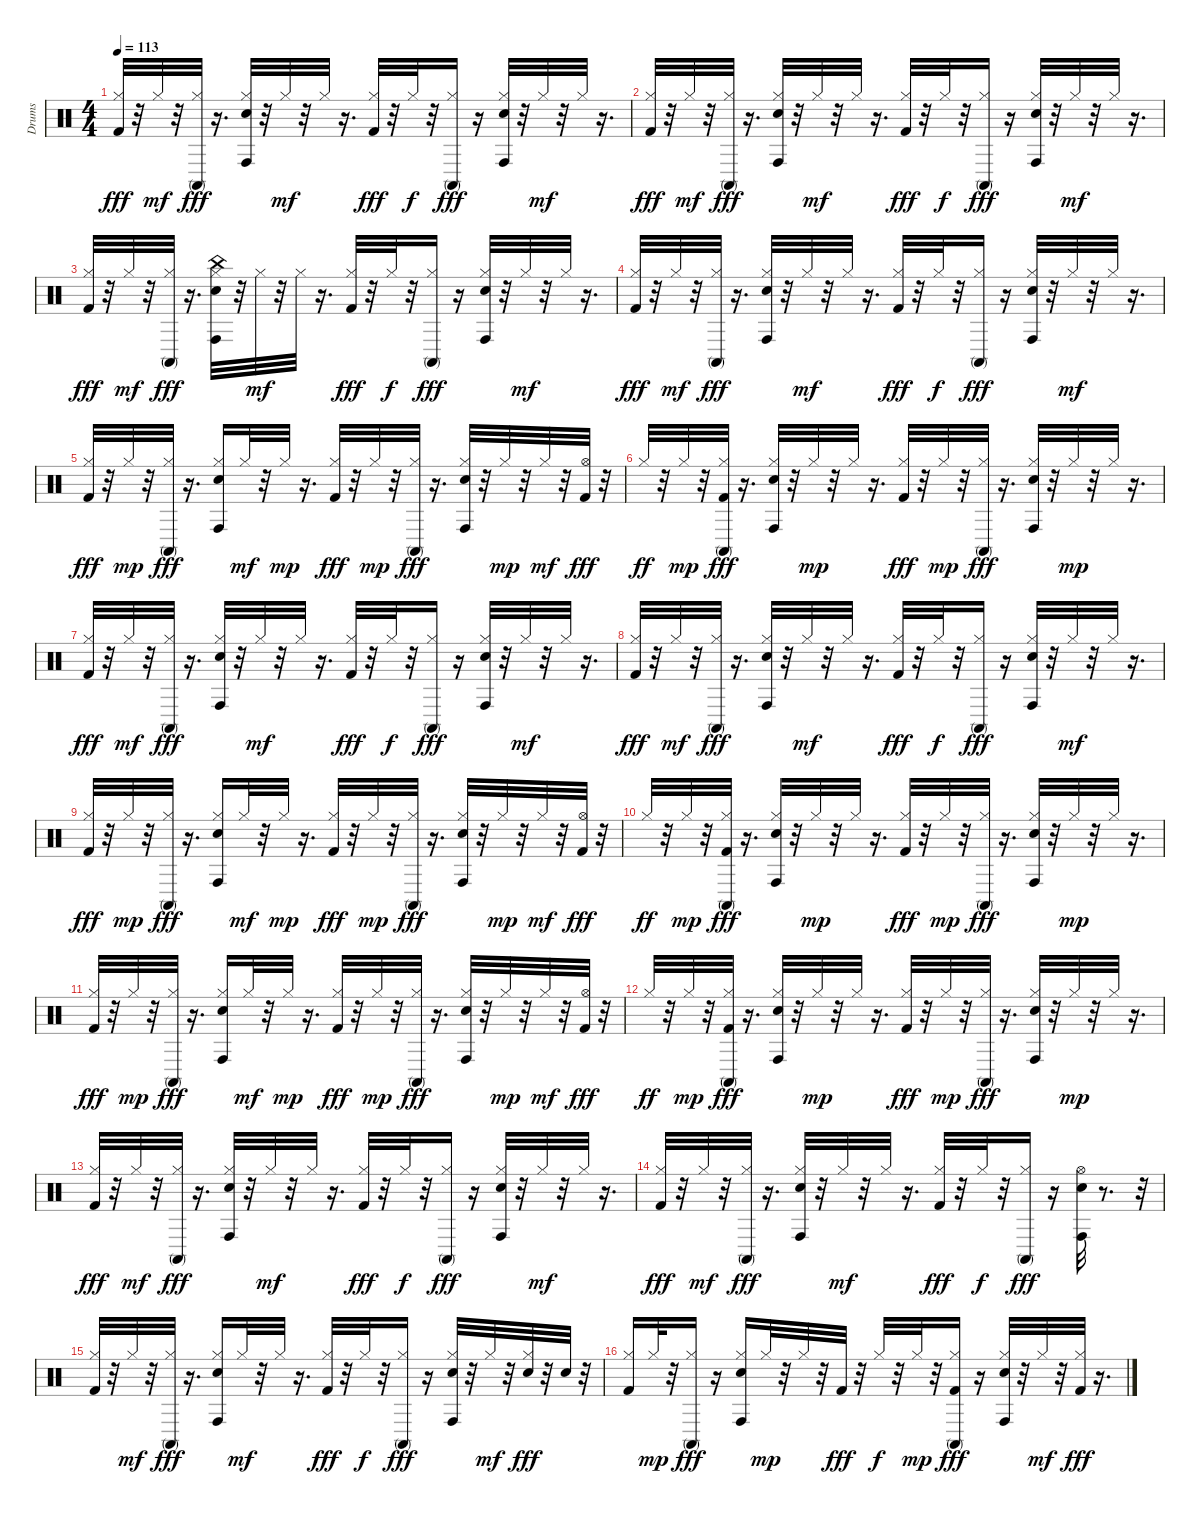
\track ("Drums   " "Drums   ") {instrument percussion}
\staff {score}
\articulation defaults
\ts (4 4)
\tempo 113
\clef neutral
\ks c
("Hi-Hat (closed)" "Kick (hit) 2").32{dy fff} r.32 "Hi-Hat (closed)".32{dy mf} r.32 ("Hi-Hat (closed)" "Conga high (mute)").32{dy fff} r.16{d} ("Hi-Hat (closed)" "Electric Snare (hit)" "Conga high (hit)").32 r.32 "Hi-Hat (closed)".32{dy mf} r.32 "Hi-Hat (closed)".32 r.16{d} ("Hi-Hat (closed)" "Kick (hit) 2").32{dy fff} r.32 "Hi-Hat (closed)".32{dy f} r.32 ("Hi-Hat (closed)" "Conga high (mute)").16{dy fff} r.16 ("Hi-Hat (closed)" "Electric Snare (hit)" "Conga high (hit)").32 r.32 "Hi-Hat (closed)".32{dy mf} r.32 "Hi-Hat (closed)".32 r.16{d} |
("Hi-Hat (closed)" "Kick (hit) 2").32{dy fff} r.32 "Hi-Hat (closed)".32{dy mf} r.32 ("Hi-Hat (closed)" "Conga high (mute)").32{dy fff} r.16{d} ("Hi-Hat (closed)" "Electric Snare (hit)" "Conga high (hit)").32 r.32 "Hi-Hat (closed)".32{dy mf} r.32 "Hi-Hat (closed)".32 r.16{d} ("Hi-Hat (closed)" "Kick (hit) 2").32{dy fff} r.32 "Hi-Hat (closed)".32{dy f} r.32 ("Hi-Hat (closed)" "Conga high (mute)").16{dy fff} r.16 ("Hi-Hat (closed)" "Electric Snare (hit)" "Conga high (hit)").32 r.32 "Hi-Hat (closed)".32{dy mf} r.32 "Hi-Hat (closed)".32 r.16{d} |
("Hi-Hat (closed)" "Kick (hit) 2").32{dy fff} r.32 "Hi-Hat (closed)".32{dy mf} r.32 ("Hi-Hat (closed)" "Conga high (mute)").32{dy fff} r.16{d} ("Hi-Hat (closed)" "Electric Snare (hit)" "China (hit)" "Conga high (hit)").32 r.32 "Hi-Hat (closed)".32{dy mf} r.32 "Hi-Hat (closed)".32 r.16{d} ("Hi-Hat (closed)" "Kick (hit) 2").32{dy fff} r.32 "Hi-Hat (closed)".32{dy f} r.32 ("Hi-Hat (closed)" "Conga high (mute)").16{dy fff} r.16 ("Hi-Hat (closed)" "Electric Snare (hit)" "Conga high (hit)").32 r.32 "Hi-Hat (closed)".32{dy mf} r.32 "Hi-Hat (closed)".32 r.16{d} |
("Hi-Hat (closed)" "Kick (hit) 2").32{dy fff} r.32 "Hi-Hat (closed)".32{dy mf} r.32 ("Hi-Hat (closed)" "Conga high (mute)").32{dy fff} r.16{d} ("Hi-Hat (closed)" "Electric Snare (hit)" "Conga high (hit)").32 r.32 "Hi-Hat (closed)".32{dy mf} r.32 "Hi-Hat (closed)".32 r.16{d} ("Hi-Hat (closed)" "Kick (hit) 2").32{dy fff} r.32 "Hi-Hat (closed)".32{dy f} r.32 ("Hi-Hat (closed)" "Conga high (mute)").16{dy fff} r.16 ("Hi-Hat (closed)" "Electric Snare (hit)" "Conga high (hit)").32 r.32 "Hi-Hat (closed)".32{dy mf} r.32 "Hi-Hat (closed)".32 r.16{d} |
("Hi-Hat (closed)" "Kick (hit) 2").32{dy fff} r.32 "Hi-Hat (closed)".32{dy mp} r.32 ("Hi-Hat (closed)" "Conga high (mute)").32{dy fff} r.16{d} ("Hi-Hat (closed)" "Electric Snare (hit)" "Conga high (hit)").16 "Hi-Hat (closed)".32{dy mf} r.32 "Hi-Hat (closed)".32{dy mp} r.16{d} ("Hi-Hat (closed)" "Kick (hit) 2").32{dy fff} r.32 "Hi-Hat (closed)".32{dy mp} r.32 ("Hi-Hat (closed)" "Conga high (mute)").32{dy fff} r.16{d} ("Hi-Hat (closed)" "Electric Snare (hit)" "Conga high (hit)").32 r.32 "Hi-Hat (closed)".32{dy mp} r.32 "Hi-Hat (closed)".32{dy mf} r.32 ("Kick (hit) 2" "Hi-Hat (open)").32{dy fff} r.32 |
"Hi-Hat (closed)".32{dy ff} r.32 "Hi-Hat (closed)".32{dy mp} r.32 ("Hi-Hat (closed)" "Kick (hit) 2" "Conga high (mute)").32{dy fff} r.16{d} ("Hi-Hat (closed)" "Electric Snare (hit)" "Conga high (hit)").32 r.32 "Hi-Hat (closed)".32{dy mp} r.32 "Hi-Hat (closed)".32 r.16{d} ("Hi-Hat (closed)" "Kick (hit) 2").32{dy fff} r.32 "Hi-Hat (closed)".32{dy mp} r.32 ("Hi-Hat (closed)" "Conga high (mute)").32{dy fff} r.16{d} ("Hi-Hat (closed)" "Electric Snare (hit)" "Conga high (hit)").32 r.32 "Hi-Hat (closed)".32{dy mp} r.32 "Hi-Hat (closed)".32 r.16{d} |
("Hi-Hat (closed)" "Kick (hit) 2").32{dy fff} r.32 "Hi-Hat (closed)".32{dy mf} r.32 ("Hi-Hat (closed)" "Conga high (mute)").32{dy fff} r.16{d} ("Hi-Hat (closed)" "Electric Snare (hit)" "Conga high (hit)").32 r.32 "Hi-Hat (closed)".32{dy mf} r.32 "Hi-Hat (closed)".32 r.16{d} ("Hi-Hat (closed)" "Kick (hit) 2").32{dy fff} r.32 "Hi-Hat (closed)".32{dy f} r.32 ("Hi-Hat (closed)" "Conga high (mute)").16{dy fff} r.16 ("Hi-Hat (closed)" "Electric Snare (hit)" "Conga high (hit)").32 r.32 "Hi-Hat (closed)".32{dy mf} r.32 "Hi-Hat (closed)".32 r.16{d} |
("Hi-Hat (closed)" "Kick (hit) 2").32{dy fff} r.32 "Hi-Hat (closed)".32{dy mf} r.32 ("Hi-Hat (closed)" "Conga high (mute)").32{dy fff} r.16{d} ("Hi-Hat (closed)" "Electric Snare (hit)" "Conga high (hit)").32 r.32 "Hi-Hat (closed)".32{dy mf} r.32 "Hi-Hat (closed)".32 r.16{d} ("Hi-Hat (closed)" "Kick (hit) 2").32{dy fff} r.32 "Hi-Hat (closed)".32{dy f} r.32 ("Hi-Hat (closed)" "Conga high (mute)").16{dy fff} r.16 ("Hi-Hat (closed)" "Electric Snare (hit)" "Conga high (hit)").32 r.32 "Hi-Hat (closed)".32{dy mf} r.32 "Hi-Hat (closed)".32 r.16{d} |
("Hi-Hat (closed)" "Kick (hit) 2").32{dy fff} r.32 "Hi-Hat (closed)".32{dy mp} r.32 ("Hi-Hat (closed)" "Conga high (mute)").32{dy fff} r.16{d} ("Hi-Hat (closed)" "Electric Snare (hit)" "Conga high (hit)").16 "Hi-Hat (closed)".32{dy mf} r.32 "Hi-Hat (closed)".32{dy mp} r.16{d} ("Hi-Hat (closed)" "Kick (hit) 2").32{dy fff} r.32 "Hi-Hat (closed)".32{dy mp} r.32 ("Hi-Hat (closed)" "Conga high (mute)").32{dy fff} r.16{d} ("Hi-Hat (closed)" "Electric Snare (hit)" "Conga high (hit)").32 r.32 "Hi-Hat (closed)".32{dy mp} r.32 "Hi-Hat (closed)".32{dy mf} r.32 ("Kick (hit) 2" "Hi-Hat (open)").32{dy fff} r.32 |
"Hi-Hat (closed)".32{dy ff} r.32 "Hi-Hat (closed)".32{dy mp} r.32 ("Hi-Hat (closed)" "Kick (hit) 2" "Conga high (mute)").32{dy fff} r.16{d} ("Hi-Hat (closed)" "Electric Snare (hit)" "Conga high (hit)").32 r.32 "Hi-Hat (closed)".32{dy mp} r.32 "Hi-Hat (closed)".32 r.16{d} ("Hi-Hat (closed)" "Kick (hit) 2").32{dy fff} r.32 "Hi-Hat (closed)".32{dy mp} r.32 ("Hi-Hat (closed)" "Conga high (mute)").32{dy fff} r.16{d} ("Hi-Hat (closed)" "Electric Snare (hit)" "Conga high (hit)").32 r.32 "Hi-Hat (closed)".32{dy mp} r.32 "Hi-Hat (closed)".32 r.16{d} |
("Hi-Hat (closed)" "Kick (hit) 2").32{dy fff} r.32 "Hi-Hat (closed)".32{dy mp} r.32 ("Hi-Hat (closed)" "Conga high (mute)").32{dy fff} r.16{d} ("Hi-Hat (closed)" "Electric Snare (hit)" "Conga high (hit)").16 "Hi-Hat (closed)".32{dy mf} r.32 "Hi-Hat (closed)".32{dy mp} r.16{d} ("Hi-Hat (closed)" "Kick (hit) 2").32{dy fff} r.32 "Hi-Hat (closed)".32{dy mp} r.32 ("Hi-Hat (closed)" "Conga high (mute)").32{dy fff} r.16{d} ("Hi-Hat (closed)" "Electric Snare (hit)" "Conga high (hit)").32 r.32 "Hi-Hat (closed)".32{dy mp} r.32 "Hi-Hat (closed)".32{dy mf} r.32 ("Kick (hit) 2" "Hi-Hat (open)").32{dy fff} r.32 |
"Hi-Hat (closed)".32{dy ff} r.32 "Hi-Hat (closed)".32{dy mp} r.32 ("Hi-Hat (closed)" "Kick (hit) 2" "Conga high (mute)").32{dy fff} r.16{d} ("Hi-Hat (closed)" "Electric Snare (hit)" "Conga high (hit)").32 r.32 "Hi-Hat (closed)".32{dy mp} r.32 "Hi-Hat (closed)".32 r.16{d} ("Hi-Hat (closed)" "Kick (hit) 2").32{dy fff} r.32 "Hi-Hat (closed)".32{dy mp} r.32 ("Hi-Hat (closed)" "Conga high (mute)").32{dy fff} r.16{d} ("Hi-Hat (closed)" "Electric Snare (hit)" "Conga high (hit)").32 r.32 "Hi-Hat (closed)".32{dy mp} r.32 "Hi-Hat (closed)".32 r.16{d} |
("Hi-Hat (closed)" "Kick (hit) 2").32{dy fff} r.32 "Hi-Hat (closed)".32{dy mf} r.32 ("Hi-Hat (closed)" "Conga high (mute)").32{dy fff} r.16{d} ("Hi-Hat (closed)" "Electric Snare (hit)" "Conga high (hit)").32 r.32 "Hi-Hat (closed)".32{dy mf} r.32 "Hi-Hat (closed)".32 r.16{d} ("Hi-Hat (closed)" "Kick (hit) 2").32{dy fff} r.32 "Hi-Hat (closed)".32{dy f} r.32 ("Hi-Hat (closed)" "Conga high (mute)").16{dy fff} r.16 ("Hi-Hat (closed)" "Electric Snare (hit)" "Conga high (hit)").32 r.32 "Hi-Hat (closed)".32{dy mf} r.32 "Hi-Hat (closed)".32 r.16{d} |
("Hi-Hat (closed)" "Kick (hit) 2").32{dy fff} r.32 "Hi-Hat (closed)".32{dy mf} r.32 ("Hi-Hat (closed)" "Conga high (mute)").32{dy fff} r.16{d} ("Hi-Hat (closed)" "Electric Snare (hit)" "Conga high (hit)").32 r.32 "Hi-Hat (closed)".32{dy mf} r.32 "Hi-Hat (closed)".32 r.16{d} ("Hi-Hat (closed)" "Kick (hit) 2").32{dy fff} r.32 "Hi-Hat (closed)".32{dy f} r.32 ("Hi-Hat (closed)" "Conga high (mute)").16{dy fff} r.16 ("Electric Snare (hit)" "Hi-Hat (open)" "Conga high (hit)").32 r.8{d} r.32 |
("Hi-Hat (closed)" "Kick (hit) 2").32 r.32 "Hi-Hat (closed)".32{dy mf} r.32 ("Hi-Hat (closed)" "Conga high (mute)").32{dy fff} r.16{d} ("Hi-Hat (closed)" "Electric Snare (hit)" "Conga high (hit)").16 "Hi-Hat (closed)".32{dy mf} r.32 "Hi-Hat (closed)".32 r.16{d} ("Hi-Hat (closed)" "Kick (hit) 2").32{dy fff} r.32 "Hi-Hat (closed)".32{dy f} r.32 ("Hi-Hat (closed)" "Conga high (mute)").16{dy fff} r.16 ("Hi-Hat (closed)" "Electric Snare (hit)" "Conga high (hit)").32 r.32 "Hi-Hat (closed)".32{dy mf} r.32 ("Hi-Hat (closed)" "Electric Snare (hit)").32{dy fff} r.32 "Electric Snare (hit)".32 r.32 |
("Hi-Hat (closed)" "Kick (hit) 2").16 "Hi-Hat (closed)".32{dy mp} r.32 ("Hi-Hat (closed)" "Conga high (mute)").16{dy fff} r.16 ("Hi-Hat (closed)" "Electric Snare (hit)" "Conga high (hit)").16 "Hi-Hat (closed)".32{dy mp} r.32 "Hi-Hat (closed)".32 r.32 "Kick (hit) 2".32{dy fff} r.32 "Hi-Hat (closed)".32{dy f} r.32 "Hi-Hat (closed)".32{dy mp} r.32 ("Hi-Hat (closed)" "Kick (hit) 2" "Conga high (mute)").16{dy fff} r.16 ("Hi-Hat (closed)" "Electric Snare (hit)" "Conga high (hit)").32 r.32 "Hi-Hat (closed)".32{dy mf} r.32 ("Hi-Hat (closed)" "Kick (hit) 2").32{dy fff} r.16{d}
